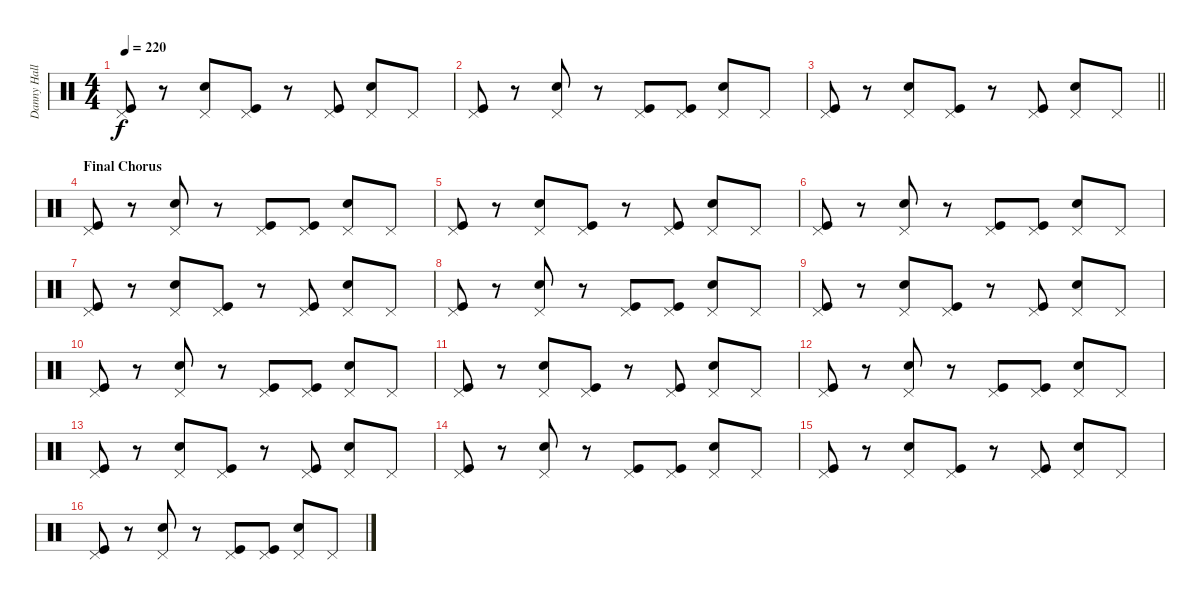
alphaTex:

\track ("Danny Hall" "Danny Hall") {instrument percussion}
\staff {score}
\articulation defaults
\ts (4 4)
\tempo 220
\clef neutral
\ks c
("Pedal Hi-Hat (hit)" "Kick (hit)").8{dy f} r.8 ("Pedal Hi-Hat (hit)" "Snare (hit) 2").8 ("Pedal Hi-Hat (hit)" "Kick (hit)").8 r.8 ("Pedal Hi-Hat (hit)" "Kick (hit)").8 ("Pedal Hi-Hat (hit)" "Snare (hit) 2").8 "Pedal Hi-Hat (hit)".8 |
("Pedal Hi-Hat (hit)" "Kick (hit)").8 r.8 ("Pedal Hi-Hat (hit)" "Snare (hit) 2").8 r.8 ("Pedal Hi-Hat (hit)" "Kick (hit)").8 ("Pedal Hi-Hat (hit)" "Kick (hit)").8 ("Pedal Hi-Hat (hit)" "Snare (hit) 2").8 "Pedal Hi-Hat (hit)".8 |
\barLineRight lightlight
("Pedal Hi-Hat (hit)" "Kick (hit)").8 r.8 ("Pedal Hi-Hat (hit)" "Snare (hit) 2").8 ("Pedal Hi-Hat (hit)" "Kick (hit)").8 r.8 ("Pedal Hi-Hat (hit)" "Kick (hit)").8 ("Pedal Hi-Hat (hit)" "Snare (hit) 2").8 "Pedal Hi-Hat (hit)".8 |
\section ("" "Final Chorus")
("Pedal Hi-Hat (hit)" "Kick (hit)").8 r.8 ("Pedal Hi-Hat (hit)" "Snare (hit) 2").8 r.8 ("Pedal Hi-Hat (hit)" "Kick (hit)").8 ("Pedal Hi-Hat (hit)" "Kick (hit)").8 ("Pedal Hi-Hat (hit)" "Snare (hit) 2").8 "Pedal Hi-Hat (hit)".8 |
("Pedal Hi-Hat (hit)" "Kick (hit)").8 r.8 ("Pedal Hi-Hat (hit)" "Snare (hit) 2").8 ("Pedal Hi-Hat (hit)" "Kick (hit)").8 r.8 ("Pedal Hi-Hat (hit)" "Kick (hit)").8 ("Pedal Hi-Hat (hit)" "Snare (hit) 2").8 "Pedal Hi-Hat (hit)".8 |
("Pedal Hi-Hat (hit)" "Kick (hit)").8 r.8 ("Pedal Hi-Hat (hit)" "Snare (hit) 2").8 r.8 ("Pedal Hi-Hat (hit)" "Kick (hit)").8 ("Pedal Hi-Hat (hit)" "Kick (hit)").8 ("Pedal Hi-Hat (hit)" "Snare (hit) 2").8 "Pedal Hi-Hat (hit)".8 |
("Pedal Hi-Hat (hit)" "Kick (hit)").8 r.8 ("Pedal Hi-Hat (hit)" "Snare (hit) 2").8 ("Pedal Hi-Hat (hit)" "Kick (hit)").8 r.8 ("Pedal Hi-Hat (hit)" "Kick (hit)").8 ("Pedal Hi-Hat (hit)" "Snare (hit) 2").8 "Pedal Hi-Hat (hit)".8 |
("Pedal Hi-Hat (hit)" "Kick (hit)").8 r.8 ("Pedal Hi-Hat (hit)" "Snare (hit) 2").8 r.8 ("Pedal Hi-Hat (hit)" "Kick (hit)").8 ("Pedal Hi-Hat (hit)" "Kick (hit)").8 ("Pedal Hi-Hat (hit)" "Snare (hit) 2").8 "Pedal Hi-Hat (hit)".8 |
("Pedal Hi-Hat (hit)" "Kick (hit)").8 r.8 ("Pedal Hi-Hat (hit)" "Snare (hit) 2").8 ("Pedal Hi-Hat (hit)" "Kick (hit)").8 r.8 ("Pedal Hi-Hat (hit)" "Kick (hit)").8 ("Pedal Hi-Hat (hit)" "Snare (hit) 2").8 "Pedal Hi-Hat (hit)".8 |
("Pedal Hi-Hat (hit)" "Kick (hit)").8 r.8 ("Pedal Hi-Hat (hit)" "Snare (hit) 2").8 r.8 ("Pedal Hi-Hat (hit)" "Kick (hit)").8 ("Pedal Hi-Hat (hit)" "Kick (hit)").8 ("Pedal Hi-Hat (hit)" "Snare (hit) 2").8 "Pedal Hi-Hat (hit)".8 |
("Pedal Hi-Hat (hit)" "Kick (hit)").8 r.8 ("Pedal Hi-Hat (hit)" "Snare (hit) 2").8 ("Pedal Hi-Hat (hit)" "Kick (hit)").8 r.8 ("Pedal Hi-Hat (hit)" "Kick (hit)").8 ("Pedal Hi-Hat (hit)" "Snare (hit) 2").8 "Pedal Hi-Hat (hit)".8 |
("Pedal Hi-Hat (hit)" "Kick (hit)").8 r.8 ("Pedal Hi-Hat (hit)" "Snare (hit) 2").8 r.8 ("Pedal Hi-Hat (hit)" "Kick (hit)").8 ("Pedal Hi-Hat (hit)" "Kick (hit)").8 ("Pedal Hi-Hat (hit)" "Snare (hit) 2").8 "Pedal Hi-Hat (hit)".8 |
("Pedal Hi-Hat (hit)" "Kick (hit)").8 r.8 ("Pedal Hi-Hat (hit)" "Snare (hit) 2").8 ("Pedal Hi-Hat (hit)" "Kick (hit)").8 r.8 ("Pedal Hi-Hat (hit)" "Kick (hit)").8 ("Pedal Hi-Hat (hit)" "Snare (hit) 2").8 "Pedal Hi-Hat (hit)".8 |
("Pedal Hi-Hat (hit)" "Kick (hit)").8 r.8 ("Pedal Hi-Hat (hit)" "Snare (hit) 2").8 r.8 ("Pedal Hi-Hat (hit)" "Kick (hit)").8 ("Pedal Hi-Hat (hit)" "Kick (hit)").8 ("Pedal Hi-Hat (hit)" "Snare (hit) 2").8 "Pedal Hi-Hat (hit)".8 |
("Pedal Hi-Hat (hit)" "Kick (hit)").8 r.8 ("Pedal Hi-Hat (hit)" "Snare (hit) 2").8 ("Pedal Hi-Hat (hit)" "Kick (hit)").8 r.8 ("Pedal Hi-Hat (hit)" "Kick (hit)").8 ("Pedal Hi-Hat (hit)" "Snare (hit) 2").8 "Pedal Hi-Hat (hit)".8 |
("Pedal Hi-Hat (hit)" "Kick (hit)").8 r.8 ("Pedal Hi-Hat (hit)" "Snare (hit) 2").8 r.8 ("Pedal Hi-Hat (hit)" "Kick (hit)").8 ("Pedal Hi-Hat (hit)" "Kick (hit)").8 ("Pedal Hi-Hat (hit)" "Snare (hit) 2").8 "Pedal Hi-Hat (hit)".8
